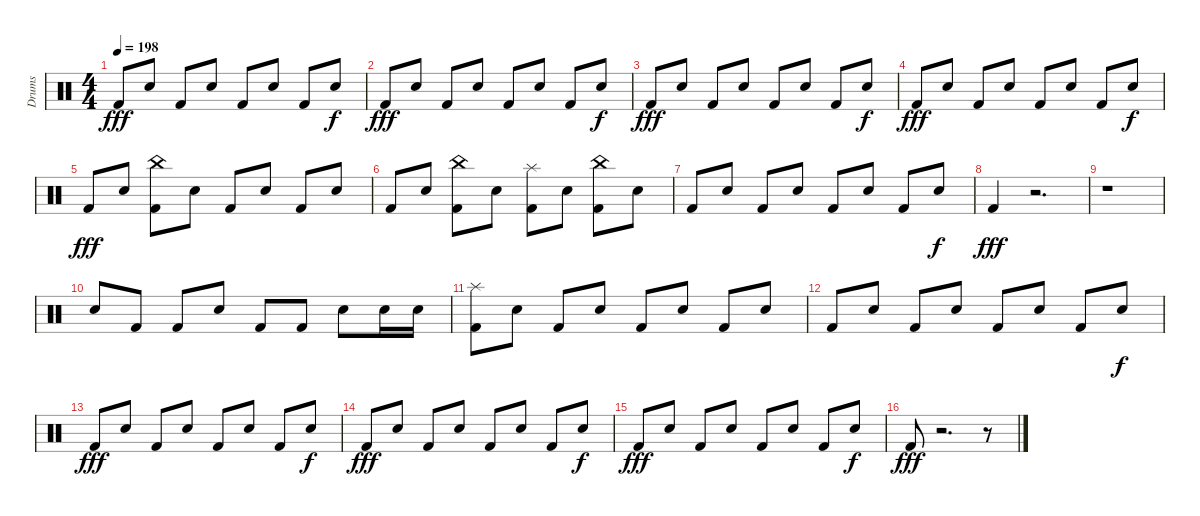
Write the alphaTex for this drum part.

\track ("Drums" "Drums") {instrument percussion}
\staff {score}
\articulation defaults
\ts (4 4)
\tempo 198
\clef neutral
\ks c "Kick (hit) 2".8{dy fff} "Snare (hit) 2".8 "Kick (hit) 2".8 "Snare (hit) 2".8 "Kick (hit) 2".8 "Snare (hit) 2".8 "Kick (hit) 2".8 "Snare (hit) 2".8{dy f}
|
"Kick (hit) 2".8{dy fff} "Snare (hit) 2".8 "Kick (hit) 2".8 "Snare (hit) 2".8 "Kick (hit) 2".8 "Snare (hit) 2".8 "Kick (hit) 2".8 "Snare (hit) 2".8{dy f} |
"Kick (hit) 2".8{dy fff} "Snare (hit) 2".8 "Kick (hit) 2".8 "Snare (hit) 2".8 "Kick (hit) 2".8 "Snare (hit) 2".8 "Kick (hit) 2".8 "Snare (hit) 2".8{dy f} |
"Kick (hit) 2".8{dy fff} "Snare (hit) 2".8 "Kick (hit) 2".8 "Snare (hit) 2".8 "Kick (hit) 2".8 "Snare (hit) 2".8 "Kick (hit) 2".8 "Snare (hit) 2".8{dy f} |
"Kick (hit) 2".8{dy fff} "Snare (hit) 2".8 ("China (hit)" "Kick (hit) 2").8 "Snare (hit) 2".8 "Kick (hit) 2".8 "Snare (hit) 2".8 "Kick (hit) 2".8 "Snare (hit) 2".8 |
"Kick (hit) 2".8 "Snare (hit) 2".8 ("China (hit)" "Kick (hit) 2").8 "Snare (hit) 2".8 ("Splash (hit)" "Kick (hit) 2").8 "Snare (hit) 2".8 ("China (hit)" "Kick (hit) 2").8 "Snare (hit) 2".8 |
"Kick (hit) 2".8 "Snare (hit) 2".8 "Kick (hit) 2".8 "Snare (hit) 2".8 "Kick (hit) 2".8 "Snare (hit) 2".8 "Kick (hit) 2".8 "Snare (hit) 2".8{dy f} |
"Kick (hit) 2".4{dy fff} r.2{d} |
r.1 |
"Snare (hit) 2".8 "Kick (hit) 2".8 "Kick (hit) 2".8 "Snare (hit) 2".8 "Kick (hit) 2".8 "Kick (hit) 2".8 "Snare (hit) 2".8 "Snare (hit) 2".16 "Snare (hit) 2".16 |
("Splash (hit)" "Kick (hit) 2").8 "Snare (hit) 2".8 "Kick (hit) 2".8 "Snare (hit) 2".8 "Kick (hit) 2".8 "Snare (hit) 2".8 "Kick (hit) 2".8 "Snare (hit) 2".8 |
"Kick (hit) 2".8 "Snare (hit) 2".8 "Kick (hit) 2".8 "Snare (hit) 2".8 "Kick (hit) 2".8 "Snare (hit) 2".8 "Kick (hit) 2".8 "Snare (hit) 2".8{dy f} |
"Kick (hit) 2".8{dy fff} "Snare (hit) 2".8 "Kick (hit) 2".8 "Snare (hit) 2".8 "Kick (hit) 2".8 "Snare (hit) 2".8 "Kick (hit) 2".8 "Snare (hit) 2".8{dy f} |
"Kick (hit) 2".8{dy fff} "Snare (hit) 2".8 "Kick (hit) 2".8 "Snare (hit) 2".8 "Kick (hit) 2".8 "Snare (hit) 2".8 "Kick (hit) 2".8 "Snare (hit) 2".8{dy f} |
"Kick (hit) 2".8{dy fff} "Snare (hit) 2".8 "Kick (hit) 2".8 "Snare (hit) 2".8 "Kick (hit) 2".8 "Snare (hit) 2".8 "Kick (hit) 2".8 "Snare (hit) 2".8{dy f} |
"Kick (hit) 2".8{dy fff} r.2{d} r.8
